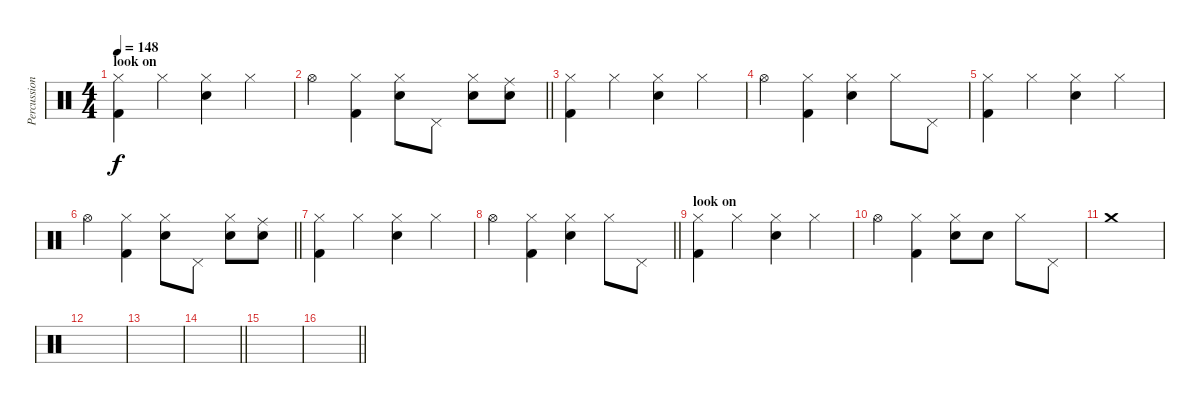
\track ("Percussions" "Percussion") {instrument percussion}
\staff {score}
\articulation defaults
\ts (4 4)
\section ("" "look on")
\tempo 148
\clef neutral
\ks c
("Hi-Hat (closed)" "Kick (hit) 2").4{dy f} "Hi-Hat (closed)".4 ("Hi-Hat (closed)" "Snare (hit) 2").4 "Hi-Hat (closed)".4 |
\barLineRight lightlight "Hi-Hat (open)".4
("Hi-Hat (closed)" "Kick (hit) 2").4 ("Hi-Hat (closed)" "Snare (hit) 2").8 "Pedal Hi-Hat (hit)".8 ("Hi-Hat (closed)" "Snare (hit) 2").8 ("Ride (middle)" "Snare (hit) 2").8 |
("Hi-Hat (closed)" "Kick (hit) 2").4 "Hi-Hat (closed)".4 ("Hi-Hat (closed)" "Snare (hit) 2").4 "Hi-Hat (closed)".4 |
"Hi-Hat (open)".4 ("Hi-Hat (closed)" "Kick (hit) 2").4 ("Hi-Hat (closed)" "Snare (hit) 2").4 "Hi-Hat (closed)".8 "Pedal Hi-Hat (hit)".8 |
("Hi-Hat (closed)" "Kick (hit) 2").4 "Hi-Hat (closed)".4 ("Hi-Hat (closed)" "Snare (hit) 2").4 "Hi-Hat (closed)".4 |
\barLineRight lightlight "Hi-Hat (open)".4
("Hi-Hat (closed)" "Kick (hit) 2").4 ("Hi-Hat (closed)" "Snare (hit) 2").8 "Pedal Hi-Hat (hit)".8 ("Hi-Hat (closed)" "Snare (hit) 2").8 ("Ride (middle)" "Snare (hit) 2").8 |
("Hi-Hat (closed)" "Kick (hit) 2").4 "Hi-Hat (closed)".4 ("Hi-Hat (closed)" "Snare (hit) 2").4 "Hi-Hat (closed)".4 |
\barLineRight lightlight "Hi-Hat (open)".4
("Hi-Hat (closed)" "Kick (hit) 2").4 ("Hi-Hat (closed)" "Snare (hit) 2").4 "Hi-Hat (closed)".8 "Pedal Hi-Hat (hit)".8 |
\section ("" "look on")
("Hi-Hat (closed)" "Kick (hit) 2").4 "Hi-Hat (closed)".4 ("Hi-Hat (closed)" "Snare (hit) 2").4 "Hi-Hat (closed)".4 |
"Hi-Hat (open)".4 ("Hi-Hat (closed)" "Kick (hit) 2").4 ("Hi-Hat (closed)" "Snare (hit) 2").8 "Snare (hit) 2".8 "Hi-Hat (closed)".8 "Pedal Hi-Hat (hit)".8 |
"Crash medium (hit)".1 |
|
|
\barLineRight lightlight
|
|
\barLineRight lightlight
